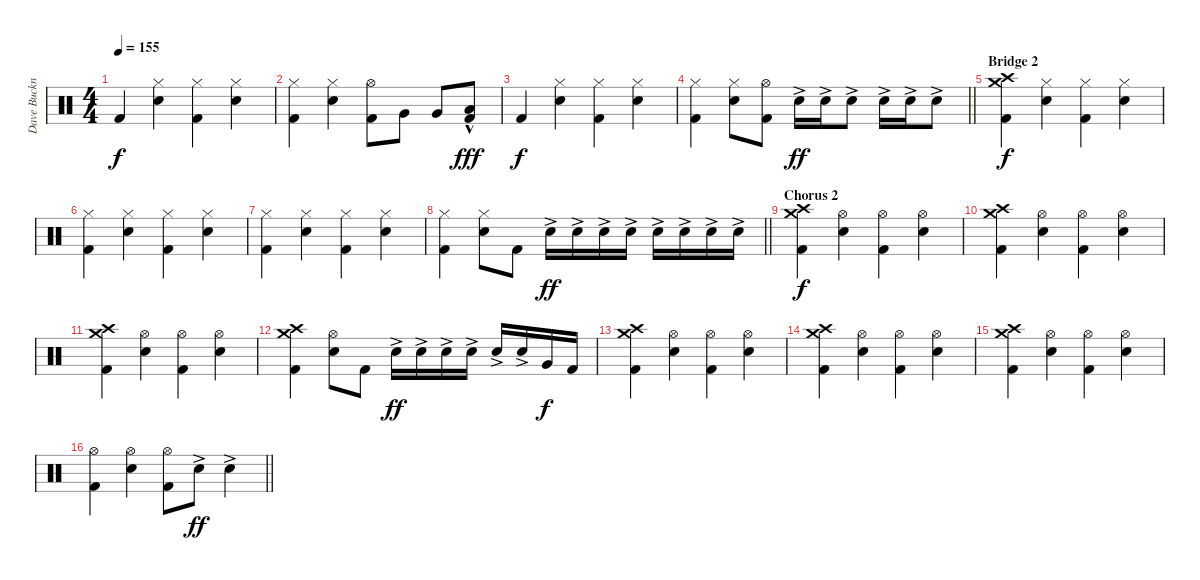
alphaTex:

\track ("Dave Buckner (Drums)" "Dave Buckn") {instrument percussion}
\staff {score}
\articulation defaults
\ts (4 4)
\tempo 155
\clef neutral
\ks c "Kick (hit) 2".4{dy f}
("Hi-Hat (closed)" "Electric Snare (hit)").4 ("Hi-Hat (closed)" "Kick (hit) 2").4 ("Hi-Hat (closed)" "Electric Snare (hit)").4 |
("Hi-Hat (closed)" "Kick (hit) 2").4 ("Hi-Hat (closed)" "Electric Snare (hit)").4 ("Hi-Hat (open)" "Kick (hit) 2").8 "Very Low Tom (hit)".8 "Very Low Tom (hit)".8 ("Low Floor Tom (hit)"{hac} "Kick (hit) 2").8{dy fff} |
"Kick (hit) 2".4{dy f} ("Hi-Hat (closed)" "Electric Snare (hit)").4 ("Hi-Hat (closed)" "Kick (hit) 2").4 ("Hi-Hat (closed)" "Electric Snare (hit)").4 |
\barLineRight lightlight
("Hi-Hat (closed)" "Kick (hit) 2").4 ("Hi-Hat (closed)" "Electric Snare (hit)").8 ("Hi-Hat (open)" "Kick (hit) 2").8 "Electric Snare (hit)"{ac}.16{dy ff} "Electric Snare (hit)"{ac}.16 "Electric Snare (hit)"{ac}.8 "Electric Snare (hit)"{ac}.16 "Electric Snare (hit)"{ac}.16 "Electric Snare (hit)"{ac}.8 |
\section ("" "Bridge 2")
("Crash medium (hit)" "Crash high (hit)" "Kick (hit) 2").4{dy f} ("Hi-Hat (closed)" "Electric Snare (hit)").4 ("Hi-Hat (closed)" "Kick (hit) 2").4 ("Hi-Hat (closed)" "Electric Snare (hit)").4 |
("Hi-Hat (closed)" "Kick (hit) 2").4 ("Hi-Hat (closed)" "Electric Snare (hit)").4 ("Hi-Hat (closed)" "Kick (hit) 2").4 ("Hi-Hat (closed)" "Electric Snare (hit)").4 |
("Hi-Hat (closed)" "Kick (hit) 2").4 ("Hi-Hat (closed)" "Electric Snare (hit)").4 ("Hi-Hat (closed)" "Kick (hit) 2").4 ("Hi-Hat (closed)" "Electric Snare (hit)").4 |
\barLineRight lightlight
("Hi-Hat (closed)" "Kick (hit) 2").4 ("Hi-Hat (closed)" "Electric Snare (hit)").8 "Kick (hit) 2".8 "Electric Snare (hit)"{ac}.16{dy ff} "Electric Snare (hit)"{ac}.16 "Electric Snare (hit)"{ac}.16 "Electric Snare (hit)"{ac}.16 "Electric Snare (hit)"{ac}.16 "Electric Snare (hit)"{ac}.16 "Electric Snare (hit)"{ac}.16 "Electric Snare (hit)"{ac}.16 |
\section ("" "Chorus 2")
("Crash medium (hit)" "Crash high (hit)" "Kick (hit) 2").4{dy f} ("Hi-Hat (open)" "Electric Snare (hit)").4 ("Hi-Hat (open)" "Kick (hit) 2").4 ("Hi-Hat (open)" "Electric Snare (hit)").4 |
("Crash medium (hit)" "Crash high (hit)" "Kick (hit) 2").4 ("Hi-Hat (open)" "Electric Snare (hit)").4 ("Hi-Hat (open)" "Kick (hit) 2").4 ("Hi-Hat (open)" "Electric Snare (hit)").4 |
("Crash medium (hit)" "Crash high (hit)" "Kick (hit) 2").4 ("Hi-Hat (open)" "Electric Snare (hit)").4 ("Hi-Hat (open)" "Kick (hit) 2").4 ("Hi-Hat (open)" "Electric Snare (hit)").4 |
("Crash medium (hit)" "Crash high (hit)" "Kick (hit) 2").4 ("Hi-Hat (open)" "Electric Snare (hit)").8 "Kick (hit) 2".8 "Electric Snare (hit)"{ac}.16{dy ff} "Electric Snare (hit)"{ac}.16 "Electric Snare (hit)"{ac}.16 "Electric Snare (hit)"{ac}.16 "Electric Snare (hit)"{ac}.16 "Electric Snare (hit)"{ac}.16 "Very Low Tom (hit)".16{dy f} "Kick (hit) 2".16 |
("Crash medium (hit)" "Crash high (hit)" "Kick (hit) 2").4 ("Hi-Hat (open)" "Electric Snare (hit)").4 ("Hi-Hat (open)" "Kick (hit) 2").4 ("Hi-Hat (open)" "Electric Snare (hit)").4 |
("Crash medium (hit)" "Crash high (hit)" "Kick (hit) 2").4 ("Hi-Hat (open)" "Electric Snare (hit)").4 ("Hi-Hat (open)" "Kick (hit) 2").4 ("Hi-Hat (open)" "Electric Snare (hit)").4 |
("Crash medium (hit)" "Crash high (hit)" "Kick (hit) 2").4 ("Hi-Hat (open)" "Electric Snare (hit)").4 ("Hi-Hat (open)" "Kick (hit) 2").4 ("Hi-Hat (open)" "Electric Snare (hit)").4 |
\barLineRight lightlight
("Hi-Hat (open)" "Kick (hit) 2").4 ("Hi-Hat (open)" "Electric Snare (hit)").4 ("Hi-Hat (open)" "Kick (hit) 2").8 "Electric Snare (hit)"{ac}.8{dy ff} "Electric Snare (hit)"{ac}.4
